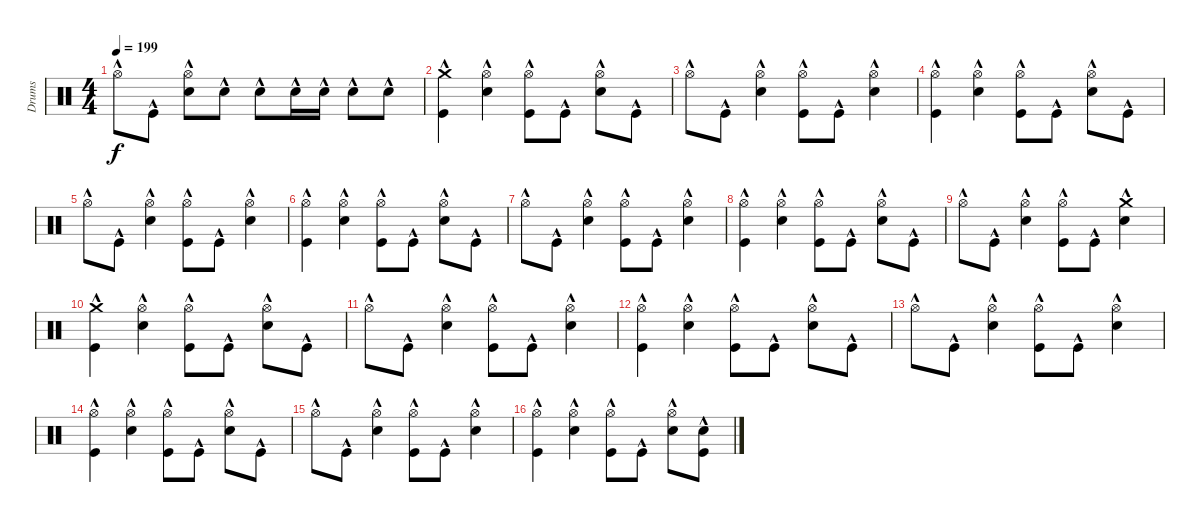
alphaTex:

\track ("Drumkit" "Drums") {instrument percussion}
\staff {score}
\articulation defaults
\ts (4 4)
\tempo 199
\clef neutral
\ks c "Hi-Hat (open)"{hac}.8{dy f} "Kick (hit)"{hac}.8
("Hi-Hat (open)"{hac} "Snare (hit) 2"{hac}).8 "Snare (hit) 2"{hac}.8 "Snare (hit) 2"{hac}.8 "Snare (hit) 2"{hac}.16 "Snare (hit) 2"{hac}.16 "Snare (hit) 2"{hac}.8 "Snare (hit) 2"{hac}.8 |
("Kick (hit)"{hac} "Crash medium (hit)"{hac}).4 ("Hi-Hat (open)"{hac} "Snare (hit) 2"{hac}).4 ("Hi-Hat (open)"{hac} "Kick (hit)"{hac}).8 "Kick (hit)"{hac}.8 ("Hi-Hat (open)"{hac} "Snare (hit) 2"{hac}).8 "Kick (hit)"{hac}.8 |
"Hi-Hat (open)"{hac}.8 "Kick (hit)"{hac}.8 ("Hi-Hat (open)"{hac} "Snare (hit) 2"{hac}).4 ("Hi-Hat (open)"{hac} "Kick (hit)"{hac}).8 "Kick (hit)"{hac}.8 ("Hi-Hat (open)"{hac} "Snare (hit) 2"{hac}).4 |
("Kick (hit)"{hac} "Hi-Hat (open)"{hac}).4 ("Hi-Hat (open)"{hac} "Snare (hit) 2"{hac}).4 ("Hi-Hat (open)"{hac} "Kick (hit)"{hac}).8 "Kick (hit)"{hac}.8 ("Hi-Hat (open)"{hac} "Snare (hit) 2"{hac}).8 "Kick (hit)"{hac}.8 |
"Hi-Hat (open)"{hac}.8 "Kick (hit)"{hac}.8 ("Hi-Hat (open)"{hac} "Snare (hit) 2"{hac}).4 ("Hi-Hat (open)"{hac} "Kick (hit)"{hac}).8 "Kick (hit)"{hac}.8 ("Hi-Hat (open)"{hac} "Snare (hit) 2"{hac}).4 |
("Kick (hit)"{hac} "Hi-Hat (open)"{hac}).4 ("Hi-Hat (open)"{hac} "Snare (hit) 2"{hac}).4 ("Hi-Hat (open)"{hac} "Kick (hit)"{hac}).8 "Kick (hit)"{hac}.8 ("Hi-Hat (open)"{hac} "Snare (hit) 2"{hac}).8 "Kick (hit)"{hac}.8 |
"Hi-Hat (open)"{hac}.8 "Kick (hit)"{hac}.8 ("Hi-Hat (open)"{hac} "Snare (hit) 2"{hac}).4 ("Hi-Hat (open)"{hac} "Kick (hit)"{hac}).8 "Kick (hit)"{hac}.8 ("Hi-Hat (open)"{hac} "Snare (hit) 2"{hac}).4 |
("Kick (hit)"{hac} "Hi-Hat (open)"{hac}).4 ("Hi-Hat (open)"{hac} "Snare (hit) 2"{hac}).4 ("Hi-Hat (open)"{hac} "Kick (hit)"{hac}).8 "Kick (hit)"{hac}.8 ("Hi-Hat (open)"{hac} "Snare (hit) 2"{hac}).8 "Kick (hit)"{hac}.8 |
"Hi-Hat (open)"{hac}.8 "Kick (hit)"{hac}.8 ("Hi-Hat (open)"{hac} "Snare (hit) 2"{hac}).4 ("Hi-Hat (open)"{hac} "Kick (hit)"{hac}).8 "Kick (hit)"{hac}.8 ("Snare (hit) 2"{hac} "Crash medium (hit)"{hac}).4 |
("Kick (hit)"{hac} "Crash medium (hit)"{hac}).4 ("Hi-Hat (open)"{hac} "Snare (hit) 2"{hac}).4 ("Hi-Hat (open)"{hac} "Kick (hit)"{hac}).8 "Kick (hit)"{hac}.8 ("Hi-Hat (open)"{hac} "Snare (hit) 2"{hac}).8 "Kick (hit)"{hac}.8 |
"Hi-Hat (open)"{hac}.8 "Kick (hit)"{hac}.8 ("Hi-Hat (open)"{hac} "Snare (hit) 2"{hac}).4 ("Hi-Hat (open)"{hac} "Kick (hit)"{hac}).8 "Kick (hit)"{hac}.8 ("Hi-Hat (open)"{hac} "Snare (hit) 2"{hac}).4 |
("Kick (hit)"{hac} "Hi-Hat (open)"{hac}).4 ("Hi-Hat (open)"{hac} "Snare (hit) 2"{hac}).4 ("Hi-Hat (open)"{hac} "Kick (hit)"{hac}).8 "Kick (hit)"{hac}.8 ("Hi-Hat (open)"{hac} "Snare (hit) 2"{hac}).8 "Kick (hit)"{hac}.8 |
"Hi-Hat (open)"{hac}.8 "Kick (hit)"{hac}.8 ("Hi-Hat (open)"{hac} "Snare (hit) 2"{hac}).4 ("Hi-Hat (open)"{hac} "Kick (hit)"{hac}).8 "Kick (hit)"{hac}.8 ("Hi-Hat (open)"{hac} "Snare (hit) 2"{hac}).4 |
("Kick (hit)"{hac} "Hi-Hat (open)"{hac}).4 ("Hi-Hat (open)"{hac} "Snare (hit) 2"{hac}).4 ("Hi-Hat (open)"{hac} "Kick (hit)"{hac}).8 "Kick (hit)"{hac}.8 ("Hi-Hat (open)"{hac} "Snare (hit) 2"{hac}).8 "Kick (hit)"{hac}.8 |
"Hi-Hat (open)"{hac}.8 "Kick (hit)"{hac}.8 ("Hi-Hat (open)"{hac} "Snare (hit) 2"{hac}).4 ("Hi-Hat (open)"{hac} "Kick (hit)"{hac}).8 "Kick (hit)"{hac}.8 ("Hi-Hat (open)"{hac} "Snare (hit) 2"{hac}).4 |
("Kick (hit)"{hac} "Hi-Hat (open)"{hac}).4 ("Hi-Hat (open)"{hac} "Snare (hit) 2"{hac}).4 ("Hi-Hat (open)"{hac} "Kick (hit)"{hac}).8 "Kick (hit)"{hac}.8 ("Hi-Hat (open)"{hac} "Snare (hit) 2"{hac}).8 ("Snare (hit) 2"{hac} "Kick (hit)"{hac}).8
